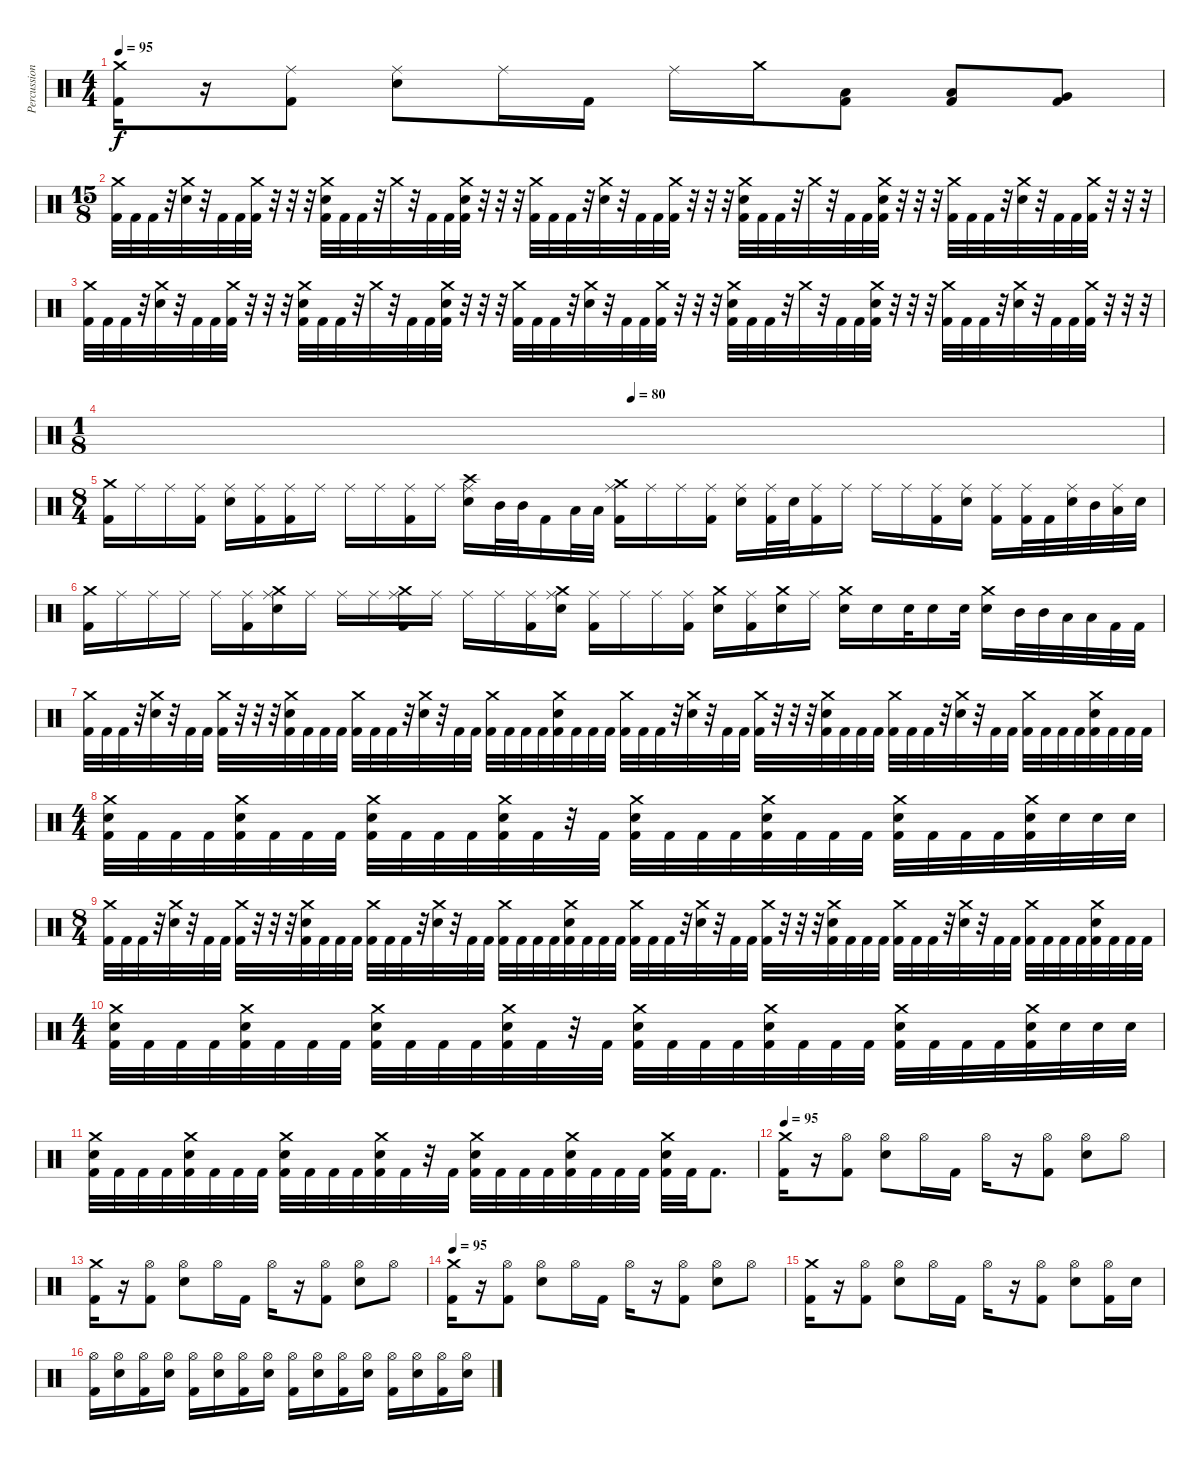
\track ("Percussion" "Percussion") {instrument percussion}
\staff {score}
\articulation defaults
\ts (4 4)
\tempo 95
\clef neutral
\ks c
("Crash medium (hit)" "Kick (hit) 2").16{dy f} r.16 ("Ride (middle)" "Kick (hit) 2").8 ("Ride (middle)" "Electric Snare (hit)").8 "Ride (middle)".16 "Kick (hit) 2".16 "Ride (middle)".16 "Crash medium (hit)".16 ("Low Tom (hit)" "Kick (hit) 2").8 ("Low Tom (hit)" "Kick (hit) 2").8 ("Very Low Tom (hit)" "Kick (hit) 2").8 |
\ts (15 8)
("Crash medium (hit)" "Kick (hit) 2").32 "Kick (hit) 2".32 "Kick (hit) 2".32 r.32 ("Crash medium (hit)" "Electric Snare (hit)").32 r.32 "Kick (hit) 2".32 "Kick (hit) 2".32 ("Crash medium (hit)" "Kick (hit) 2").32 r.32 r.32 r.32 ("Crash medium (hit)" "Electric Snare (hit)" "Kick (hit) 2").32 "Kick (hit) 2".32 "Kick (hit) 2".32 r.32 "Crash medium (hit)".32 r.32 "Kick (hit) 2".32 "Kick (hit) 2".32 ("Crash medium (hit)" "Electric Snare (hit)" "Kick (hit) 2").32 r.32 r.32 r.32 ("Crash medium (hit)" "Kick (hit) 2").32 "Kick (hit) 2".32 "Kick (hit) 2".32 r.32 ("Crash medium (hit)" "Electric Snare (hit)").32 r.32 "Kick (hit) 2".32 "Kick (hit) 2".32 ("Crash medium (hit)" "Kick (hit) 2").32 r.32 r.32 r.32 ("Crash medium (hit)" "Electric Snare (hit)" "Kick (hit) 2").32 "Kick (hit) 2".32 "Kick (hit) 2".32 r.32 "Crash medium (hit)".32 r.32 "Kick (hit) 2".32 "Kick (hit) 2".32 ("Crash medium (hit)" "Electric Snare (hit)" "Kick (hit) 2").32 r.32 r.32 r.32 ("Crash medium (hit)" "Kick (hit) 2").32 "Kick (hit) 2".32 "Kick (hit) 2".32 r.32 ("Crash medium (hit)" "Electric Snare (hit)").32 r.32 "Kick (hit) 2".32 "Kick (hit) 2".32 ("Crash medium (hit)" "Kick (hit) 2").32 r.32 r.32 r.32 |
("Crash medium (hit)" "Kick (hit) 2").32 "Kick (hit) 2".32 "Kick (hit) 2".32 r.32 ("Crash medium (hit)" "Electric Snare (hit)").32 r.32 "Kick (hit) 2".32 "Kick (hit) 2".32 ("Crash medium (hit)" "Kick (hit) 2").32 r.32 r.32 r.32 ("Crash medium (hit)" "Electric Snare (hit)" "Kick (hit) 2").32 "Kick (hit) 2".32 "Kick (hit) 2".32 r.32 "Crash medium (hit)".32 r.32 "Kick (hit) 2".32 "Kick (hit) 2".32 ("Crash medium (hit)" "Electric Snare (hit)" "Kick (hit) 2").32 r.32 r.32 r.32 ("Crash medium (hit)" "Kick (hit) 2").32 "Kick (hit) 2".32 "Kick (hit) 2".32 r.32 ("Crash medium (hit)" "Electric Snare (hit)").32 r.32 "Kick (hit) 2".32 "Kick (hit) 2".32 ("Crash medium (hit)" "Kick (hit) 2").32 r.32 r.32 r.32 ("Crash medium (hit)" "Electric Snare (hit)" "Kick (hit) 2").32 "Kick (hit) 2".32 "Kick (hit) 2".32 r.32 "Crash medium (hit)".32 r.32 "Kick (hit) 2".32 "Kick (hit) 2".32 ("Crash medium (hit)" "Electric Snare (hit)" "Kick (hit) 2").32 r.32 r.32 r.32 ("Crash medium (hit)" "Kick (hit) 2").32 "Kick (hit) 2".32 "Kick (hit) 2".32 r.32 ("Crash medium (hit)" "Electric Snare (hit)").32 r.32 "Kick (hit) 2".32 "Kick (hit) 2".32 ("Crash medium (hit)" "Kick (hit) 2").32 r.32 r.32 r.32 |
\ts (1 8)
\tempo (80 0.5)
|
\ts (8 4)
("Crash medium (hit)" "Kick (hit) 2").16 "Ride (middle)".16 "Ride (middle)".16 ("Ride (middle)" "Kick (hit) 2").16 ("Ride (middle)" "Electric Snare (hit)").16 ("Ride (middle)" "Kick (hit) 2").16 ("Ride (middle)" "Kick (hit) 2").16 "Ride (middle)".16 "Ride (middle)".16 "Ride (middle)".16 ("Ride (middle)" "Kick (hit) 2").16 "Ride (middle)".16 ("Crash high (hit)" "Ride (middle)" "Electric Snare (hit)").16 "Mid Tom (hit)".32 "Mid Tom (hit)".32 "Kick (hit) 2".16 "Low Tom (hit)".32 "Low Tom (hit)".32 ("Crash medium (hit)" "Ride (middle)" "Kick (hit) 2").16 "Ride (middle)".16 "Ride (middle)".16 ("Ride (middle)" "Kick (hit) 2").16 ("Ride (middle)" "Electric Snare (hit)").16 ("Ride (middle)" "Kick (hit) 2").32 "Electric Snare (hit)".32 ("Ride (middle)" "Kick (hit) 2").16 "Ride (middle)".16 "Ride (middle)".16 "Ride (middle)".16 ("Ride (middle)" "Kick (hit) 2").16 ("Ride (middle)" "Electric Snare (hit)").16 ("Ride (middle)" "Kick (hit) 2").16 ("Ride (middle)" "Kick (hit) 2").32 "Kick (hit) 2".32 ("Ride (middle)" "Electric Snare (hit)").32 "Mid Tom (hit)".32 ("Ride (middle)" "Low Tom (hit)").32 "Electric Snare (hit)".32 |
("Crash medium (hit)" "Kick (hit) 2").16 "Ride (middle)".16 "Ride (middle)".16 "Ride (middle)".16 "Ride (middle)".16 ("Ride (middle)" "Kick (hit) 2").16 ("Crash medium (hit)" "Ride (middle)" "Electric Snare (hit)").16 "Ride (middle)".16 "Ride (middle)".16 "Ride (middle)".16 ("Crash medium (hit)" "Ride (middle)" "Kick (hit) 2").16 "Ride (middle)".16 "Ride (middle)".16 "Ride (middle)".16 ("Ride (middle)" "Kick (hit) 2").16 ("Crash medium (hit)" "Ride (middle)" "Electric Snare (hit)").16 ("Ride (middle)" "Kick (hit) 2").16 "Ride (middle)".16 "Ride (middle)".16 ("Ride (middle)" "Kick (hit) 2").16 ("Crash medium (hit)" "Electric Snare (hit)").16 ("Ride (middle)" "Kick (hit) 2").16 ("Crash medium (hit)" "Electric Snare (hit)").16 "Ride (middle)".16 ("Crash medium (hit)" "Electric Snare (hit)").16 "Electric Snare (hit)".16 "Electric Snare (hit)".32 "Electric Snare (hit)".16 "Electric Snare (hit)".32 ("Crash medium (hit)" "Electric Snare (hit)").16 "Mid Tom (hit)".32 "Mid Tom (hit)".32 "Low Tom (hit)".32 "Low Tom (hit)".32 "Kick (hit) 2".32 "Kick (hit) 2".32 |
("Crash medium (hit)" "Kick (hit) 2").32 "Kick (hit) 2".32 "Kick (hit) 2".32 r.32 ("Crash medium (hit)" "Electric Snare (hit)").32 r.32 "Kick (hit) 2".32 "Kick (hit) 2".32 ("Crash medium (hit)" "Kick (hit) 2").32 r.32 r.32 r.32 ("Crash medium (hit)" "Electric Snare (hit)" "Kick (hit) 2").32 "Kick (hit) 2".32 "Kick (hit) 2".32 "Kick (hit) 2".32 ("Crash medium (hit)" "Kick (hit) 2").32 "Kick (hit) 2".32 "Kick (hit) 2".32 r.32 ("Crash medium (hit)" "Electric Snare (hit)").32 r.32 "Kick (hit) 2".32 "Kick (hit) 2".32 ("Crash medium (hit)" "Kick (hit) 2").32 "Kick (hit) 2".32 "Kick (hit) 2".32 "Kick (hit) 2".32 ("Crash medium (hit)" "Electric Snare (hit)" "Kick (hit) 2").32 "Kick (hit) 2".32 "Kick (hit) 2".32 "Kick (hit) 2".32 ("Crash medium (hit)" "Kick (hit) 2").32 "Kick (hit) 2".32 "Kick (hit) 2".32 r.32 ("Crash medium (hit)" "Electric Snare (hit)").32 r.32 "Kick (hit) 2".32 "Kick (hit) 2".32 ("Crash medium (hit)" "Kick (hit) 2").32 r.32 r.32 r.32 ("Crash medium (hit)" "Electric Snare (hit)" "Kick (hit) 2").32 "Kick (hit) 2".32 "Kick (hit) 2".32 "Kick (hit) 2".32 ("Crash medium (hit)" "Kick (hit) 2").32 "Kick (hit) 2".32 "Kick (hit) 2".32 r.32 ("Crash medium (hit)" "Electric Snare (hit)").32 r.32 "Kick (hit) 2".32 "Kick (hit) 2".32 ("Crash medium (hit)" "Kick (hit) 2").32 "Kick (hit) 2".32 "Kick (hit) 2".32 "Kick (hit) 2".32 ("Crash medium (hit)" "Electric Snare (hit)" "Kick (hit) 2").32 "Kick (hit) 2".32 "Kick (hit) 2".32 "Kick (hit) 2".32 |
\ts (4 4)
("Crash medium (hit)" "Electric Snare (hit)" "Kick (hit) 2").32 "Kick (hit) 2".32 "Kick (hit) 2".32 "Kick (hit) 2".32 ("Crash medium (hit)" "Electric Snare (hit)" "Kick (hit) 2").32 "Kick (hit) 2".32 "Kick (hit) 2".32 "Kick (hit) 2".32 ("Crash medium (hit)" "Electric Snare (hit)" "Kick (hit) 2").32 "Kick (hit) 2".32 "Kick (hit) 2".32 "Kick (hit) 2".32 ("Crash medium (hit)" "Electric Snare (hit)" "Kick (hit) 2").32 "Kick (hit) 2".32 r.32 "Kick (hit) 2".32 ("Crash medium (hit)" "Electric Snare (hit)" "Kick (hit) 2").32 "Kick (hit) 2".32 "Kick (hit) 2".32 "Kick (hit) 2".32 ("Crash medium (hit)" "Electric Snare (hit)" "Kick (hit) 2").32 "Kick (hit) 2".32 "Kick (hit) 2".32 "Kick (hit) 2".32 ("Crash medium (hit)" "Electric Snare (hit)" "Kick (hit) 2").32 "Kick (hit) 2".32 "Kick (hit) 2".32 "Kick (hit) 2".32 ("Crash medium (hit)" "Electric Snare (hit)" "Kick (hit) 2").32 "Electric Snare (hit)".32 "Electric Snare (hit)".32 "Electric Snare (hit)".32 |
\ts (8 4)
("Crash medium (hit)" "Kick (hit) 2").32 "Kick (hit) 2".32 "Kick (hit) 2".32 r.32 ("Crash medium (hit)" "Electric Snare (hit)").32 r.32 "Kick (hit) 2".32 "Kick (hit) 2".32 ("Crash medium (hit)" "Kick (hit) 2").32 r.32 r.32 r.32 ("Crash medium (hit)" "Electric Snare (hit)" "Kick (hit) 2").32 "Kick (hit) 2".32 "Kick (hit) 2".32 "Kick (hit) 2".32 ("Crash medium (hit)" "Kick (hit) 2").32 "Kick (hit) 2".32 "Kick (hit) 2".32 r.32 ("Crash medium (hit)" "Electric Snare (hit)").32 r.32 "Kick (hit) 2".32 "Kick (hit) 2".32 ("Crash medium (hit)" "Kick (hit) 2").32 "Kick (hit) 2".32 "Kick (hit) 2".32 "Kick (hit) 2".32 ("Crash medium (hit)" "Electric Snare (hit)" "Kick (hit) 2").32 "Kick (hit) 2".32 "Kick (hit) 2".32 "Kick (hit) 2".32 ("Crash medium (hit)" "Kick (hit) 2").32 "Kick (hit) 2".32 "Kick (hit) 2".32 r.32 ("Crash medium (hit)" "Electric Snare (hit)").32 r.32 "Kick (hit) 2".32 "Kick (hit) 2".32 ("Crash medium (hit)" "Kick (hit) 2").32 r.32 r.32 r.32 ("Crash medium (hit)" "Electric Snare (hit)" "Kick (hit) 2").32 "Kick (hit) 2".32 "Kick (hit) 2".32 "Kick (hit) 2".32 ("Crash medium (hit)" "Kick (hit) 2").32 "Kick (hit) 2".32 "Kick (hit) 2".32 r.32 ("Crash medium (hit)" "Electric Snare (hit)").32 r.32 "Kick (hit) 2".32 "Kick (hit) 2".32 ("Crash medium (hit)" "Kick (hit) 2").32 "Kick (hit) 2".32 "Kick (hit) 2".32 "Kick (hit) 2".32 ("Crash medium (hit)" "Electric Snare (hit)" "Kick (hit) 2").32 "Kick (hit) 2".32 "Kick (hit) 2".32 "Kick (hit) 2".32 |
\ts (4 4)
("Crash medium (hit)" "Electric Snare (hit)" "Kick (hit) 2").32 "Kick (hit) 2".32 "Kick (hit) 2".32 "Kick (hit) 2".32 ("Crash medium (hit)" "Electric Snare (hit)" "Kick (hit) 2").32 "Kick (hit) 2".32 "Kick (hit) 2".32 "Kick (hit) 2".32 ("Crash medium (hit)" "Electric Snare (hit)" "Kick (hit) 2").32 "Kick (hit) 2".32 "Kick (hit) 2".32 "Kick (hit) 2".32 ("Crash medium (hit)" "Electric Snare (hit)" "Kick (hit) 2").32 "Kick (hit) 2".32 r.32 "Kick (hit) 2".32 ("Crash medium (hit)" "Electric Snare (hit)" "Kick (hit) 2").32 "Kick (hit) 2".32 "Kick (hit) 2".32 "Kick (hit) 2".32 ("Crash medium (hit)" "Electric Snare (hit)" "Kick (hit) 2").32 "Kick (hit) 2".32 "Kick (hit) 2".32 "Kick (hit) 2".32 ("Crash medium (hit)" "Electric Snare (hit)" "Kick (hit) 2").32 "Kick (hit) 2".32 "Kick (hit) 2".32 "Kick (hit) 2".32 ("Crash medium (hit)" "Electric Snare (hit)" "Kick (hit) 2").32 "Electric Snare (hit)".32 "Electric Snare (hit)".32 "Electric Snare (hit)".32 |
("Crash medium (hit)" "Electric Snare (hit)" "Kick (hit) 2").32 "Kick (hit) 2".32 "Kick (hit) 2".32 "Kick (hit) 2".32 ("Crash medium (hit)" "Electric Snare (hit)" "Kick (hit) 2").32 "Kick (hit) 2".32 "Kick (hit) 2".32 "Kick (hit) 2".32 ("Crash medium (hit)" "Electric Snare (hit)" "Kick (hit) 2").32 "Kick (hit) 2".32 "Kick (hit) 2".32 "Kick (hit) 2".32 ("Crash medium (hit)" "Electric Snare (hit)" "Kick (hit) 2").32 "Kick (hit) 2".32 r.32 "Kick (hit) 2".32 ("Crash medium (hit)" "Electric Snare (hit)" "Kick (hit) 2").32 "Kick (hit) 2".32 "Kick (hit) 2".32 "Kick (hit) 2".32 ("Crash medium (hit)" "Electric Snare (hit)" "Kick (hit) 2").32 "Kick (hit) 2".32 "Kick (hit) 2".32 "Kick (hit) 2".32 ("Crash medium (hit)" "Electric Snare (hit)" "Kick (hit) 2").32 "Kick (hit) 2".32 "Kick (hit) 2".8{d} |
\tempo 95
("Crash medium (hit)" "Kick (hit) 2").16 r.16 ("Hi-Hat (open)" "Kick (hit) 2").8 ("Hi-Hat (open)" "Electric Snare (hit)").8 "Hi-Hat (open)".16 "Kick (hit) 2".16 "Hi-Hat (open)".16 r.16 ("Hi-Hat (open)" "Kick (hit) 2").8 ("Hi-Hat (open)" "Electric Snare (hit)").8 "Hi-Hat (open)".8 |
("Crash medium (hit)" "Kick (hit) 2").16 r.16 ("Hi-Hat (open)" "Kick (hit) 2").8 ("Hi-Hat (open)" "Electric Snare (hit)").8 "Hi-Hat (open)".16 "Kick (hit) 2".16 "Hi-Hat (open)".16 r.16 ("Hi-Hat (open)" "Kick (hit) 2").8 ("Hi-Hat (open)" "Electric Snare (hit)").8 "Hi-Hat (open)".8 |
\tempo 95
("Crash medium (hit)" "Kick (hit) 2").16 r.16 ("Hi-Hat (open)" "Kick (hit) 2").8 ("Hi-Hat (open)" "Electric Snare (hit)").8 "Hi-Hat (open)".16 "Kick (hit) 2".16 "Hi-Hat (open)".16 r.16 ("Hi-Hat (open)" "Kick (hit) 2").8 ("Hi-Hat (open)" "Electric Snare (hit)").8 "Hi-Hat (open)".8 |
("Crash medium (hit)" "Kick (hit) 2").16 r.16 ("Hi-Hat (open)" "Kick (hit) 2").8 ("Hi-Hat (open)" "Electric Snare (hit)").8 "Hi-Hat (open)".16 "Kick (hit) 2".16 "Hi-Hat (open)".16 r.16 ("Hi-Hat (open)" "Kick (hit) 2").8 ("Hi-Hat (open)" "Electric Snare (hit)").8 ("Hi-Hat (open)" "Kick (hit) 2").16 "Electric Snare (hit)".16 |
("Hi-Hat (open)" "Kick (hit) 2").16 ("Hi-Hat (open)" "Electric Snare (hit)").16 ("Hi-Hat (open)" "Kick (hit) 2").16 ("Hi-Hat (open)" "Electric Snare (hit)").16 ("Hi-Hat (open)" "Kick (hit) 2").16 ("Hi-Hat (open)" "Electric Snare (hit)").16 ("Hi-Hat (open)" "Kick (hit) 2").16 ("Hi-Hat (open)" "Electric Snare (hit)").16 ("Hi-Hat (open)" "Kick (hit) 2").16 ("Hi-Hat (open)" "Electric Snare (hit)").16 ("Hi-Hat (open)" "Kick (hit) 2").16 ("Hi-Hat (open)" "Electric Snare (hit)").16 ("Hi-Hat (open)" "Kick (hit) 2").16 ("Hi-Hat (open)" "Electric Snare (hit)").16 ("Hi-Hat (open)" "Kick (hit) 2").16 ("Hi-Hat (open)" "Electric Snare (hit)").16
